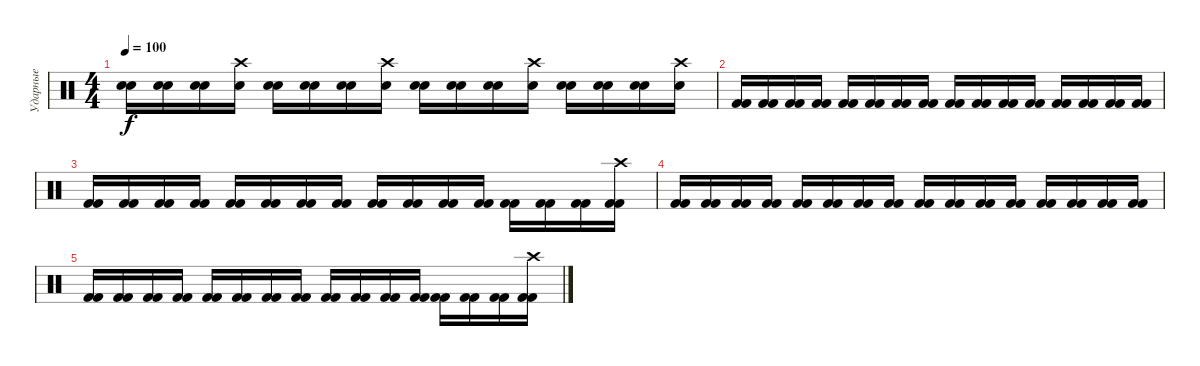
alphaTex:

\track ("Ударные" "Ударные") {instrument percussion}
\staff {score}
\articulation defaults
\ts (4 4)
\tempo 100
\clef neutral
\ks c
("Electric Snare (hit)" "Electric Snare (hit)").16{dy f} ("Electric Snare (hit)" "Electric Snare (hit)").16 ("Electric Snare (hit)" "Electric Snare (hit)").16 ("Electric Snare (hit)" "Crash high (hit)").16 ("Electric Snare (hit)" "Electric Snare (hit)").16 ("Electric Snare (hit)" "Electric Snare (hit)").16 ("Electric Snare (hit)" "Electric Snare (hit)").16 ("Electric Snare (hit)" "Crash high (hit)").16 ("Electric Snare (hit)" "Electric Snare (hit)").16 ("Electric Snare (hit)" "Electric Snare (hit)").16 ("Electric Snare (hit)" "Electric Snare (hit)").16 ("Electric Snare (hit)" "Crash high (hit)").16 ("Electric Snare (hit)" "Electric Snare (hit)").16 ("Electric Snare (hit)" "Electric Snare (hit)").16 ("Electric Snare (hit)" "Electric Snare (hit)").16 ("Electric Snare (hit)" "Crash high (hit)").16 |
("Kick (hit) 2" "Kick (hit) 2").16 ("Kick (hit) 2" "Kick (hit) 2").16 ("Kick (hit) 2" "Kick (hit) 2").16 ("Kick (hit) 2" "Kick (hit) 2").16 ("Kick (hit) 2" "Kick (hit) 2").16 ("Kick (hit) 2" "Kick (hit) 2").16 ("Kick (hit) 2" "Kick (hit) 2").16 ("Kick (hit) 2" "Kick (hit) 2").16 ("Kick (hit) 2" "Kick (hit) 2").16 ("Kick (hit) 2" "Kick (hit) 2").16 ("Kick (hit) 2" "Kick (hit) 2").16 ("Kick (hit) 2" "Kick (hit) 2").16 ("Kick (hit) 2" "Kick (hit) 2").16 ("Kick (hit) 2" "Kick (hit) 2").16 ("Kick (hit) 2" "Kick (hit) 2").16 ("Kick (hit) 2" "Kick (hit) 2").16 |
("Kick (hit) 2" "Kick (hit) 2").16 ("Kick (hit) 2" "Kick (hit) 2").16 ("Kick (hit) 2" "Kick (hit) 2").16 ("Kick (hit) 2" "Kick (hit) 2").16 ("Kick (hit) 2" "Kick (hit) 2").16 ("Kick (hit) 2" "Kick (hit) 2").16 ("Kick (hit) 2" "Kick (hit) 2").16 ("Kick (hit) 2" "Kick (hit) 2").16 ("Kick (hit) 2" "Kick (hit) 2").16 ("Kick (hit) 2" "Kick (hit) 2").16 ("Kick (hit) 2" "Kick (hit) 2").16 ("Kick (hit) 2" "Kick (hit) 2").16 ("Kick (hit) 2" "Kick (hit) 2").16 ("Kick (hit) 2" "Kick (hit) 2").16 ("Kick (hit) 2" "Kick (hit) 2").16 ("Kick (hit) 2" "Kick (hit) 2" "Crash high (hit)").16 |
("Kick (hit) 2" "Kick (hit) 2").16 ("Kick (hit) 2" "Kick (hit) 2").16 ("Kick (hit) 2" "Kick (hit) 2").16 ("Kick (hit) 2" "Kick (hit) 2").16 ("Kick (hit) 2" "Kick (hit) 2").16 ("Kick (hit) 2" "Kick (hit) 2").16 ("Kick (hit) 2" "Kick (hit) 2").16 ("Kick (hit) 2" "Kick (hit) 2").16 ("Kick (hit) 2" "Kick (hit) 2").16 ("Kick (hit) 2" "Kick (hit) 2").16 ("Kick (hit) 2" "Kick (hit) 2").16 ("Kick (hit) 2" "Kick (hit) 2").16 ("Kick (hit) 2" "Kick (hit) 2").16 ("Kick (hit) 2" "Kick (hit) 2").16 ("Kick (hit) 2" "Kick (hit) 2").16 ("Kick (hit) 2" "Kick (hit) 2").16 |
("Kick (hit) 2" "Kick (hit) 2").16 ("Kick (hit) 2" "Kick (hit) 2").16 ("Kick (hit) 2" "Kick (hit) 2").16 ("Kick (hit) 2" "Kick (hit) 2").16 ("Kick (hit) 2" "Kick (hit) 2").16 ("Kick (hit) 2" "Kick (hit) 2").16 ("Kick (hit) 2" "Kick (hit) 2").16 ("Kick (hit) 2" "Kick (hit) 2").16 ("Kick (hit) 2" "Kick (hit) 2").16 ("Kick (hit) 2" "Kick (hit) 2").16 ("Kick (hit) 2" "Kick (hit) 2").16 ("Kick (hit) 2" "Kick (hit) 2").16 ("Kick (hit) 2" "Kick (hit) 2").16 ("Kick (hit) 2" "Kick (hit) 2").16 ("Kick (hit) 2" "Kick (hit) 2").16 ("Kick (hit) 2" "Kick (hit) 2" "Crash high (hit)").16
